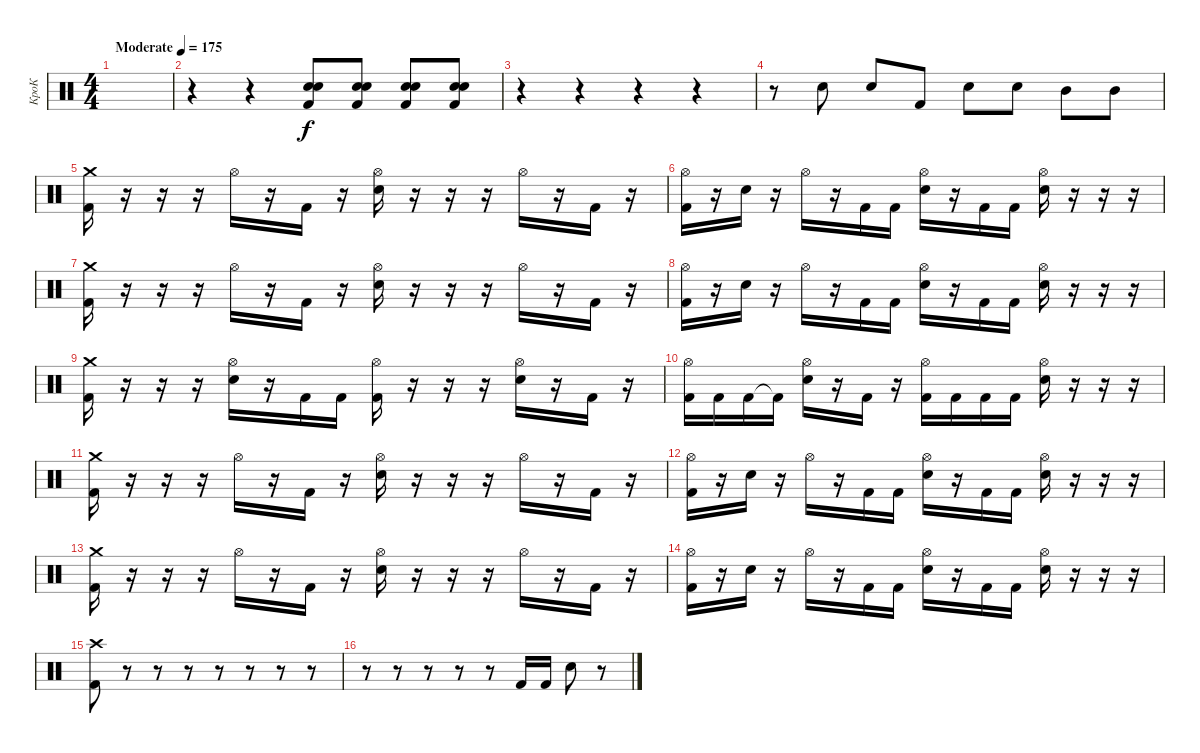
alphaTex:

\track ("КроК" "КроК") {instrument percussion}
\staff {score}
\articulation defaults
\ts (4 4)
\tempo (175 "Moderate")
\clef neutral
\ks c
|
r.4 r.4 ("Electric Snare (hit)" "Kick (hit) 2" "Electric Snare (hit)").8 ("Electric Snare (hit)" "Kick (hit) 2" "Electric Snare (hit)").8 ("Electric Snare (hit)" "Kick (hit) 2" "Electric Snare (hit)").8 ("Electric Snare (hit)" "Kick (hit) 2" "Electric Snare (hit)").8 |
r.4 r.4 r.4 r.4 |
r.8 "Electric Snare (hit)".8 "Electric Snare (hit)".8 "Kick (hit) 2".8 "Electric Snare (hit)".8 "Electric Snare (hit)".8 "Mid Tom (hit)".8 "Mid Tom (hit)".8 |
("Crash medium (hit)" "Kick (hit) 2").16 r.16 r.16 r.16 "Hi-Hat (open)".16 r.16 "Kick (hit) 2".16 r.16 ("Hi-Hat (open)" "Electric Snare (hit)").16 r.16 r.16 r.16 "Hi-Hat (open)".16 r.16 "Kick (hit) 2".16 r.16 |
("Hi-Hat (open)" "Kick (hit) 2").16 r.16 "Electric Snare (hit)".16 r.16 "Hi-Hat (open)".16 r.16 "Kick (hit) 2".16 "Kick (hit) 2".16 ("Hi-Hat (open)" "Electric Snare (hit)").16 r.16 "Kick (hit) 2".16 "Kick (hit) 2".16 ("Hi-Hat (open)" "Electric Snare (hit)").16 r.16 r.16 r.16 |
("Crash medium (hit)" "Kick (hit) 2").16 r.16 r.16 r.16 "Hi-Hat (open)".16 r.16 "Kick (hit) 2".16 r.16 ("Hi-Hat (open)" "Electric Snare (hit)").16 r.16 r.16 r.16 "Hi-Hat (open)".16 r.16 "Kick (hit) 2".16 r.16 |
("Hi-Hat (open)" "Kick (hit) 2").16 r.16 "Electric Snare (hit)".16 r.16 "Hi-Hat (open)".16 r.16 "Kick (hit) 2".16 "Kick (hit) 2".16 ("Hi-Hat (open)" "Electric Snare (hit)").16 r.16 "Kick (hit) 2".16 "Kick (hit) 2".16 ("Hi-Hat (open)" "Electric Snare (hit)").16 r.16 r.16 r.16 |
("Crash medium (hit)" "Kick (hit) 2").16 r.16 r.16 r.16 ("Hi-Hat (open)" "Electric Snare (hit)").16 r.16 "Kick (hit) 2".16 "Kick (hit) 2".16 ("Hi-Hat (open)" "Kick (hit) 2").16 r.16 r.16 r.16 ("Hi-Hat (open)" "Electric Snare (hit)").16 r.16 "Kick (hit) 2".16 r.16 |
("Hi-Hat (open)" "Kick (hit) 2").16 "Kick (hit) 2".16 "Kick (hit) 2".16 "Kick (hit) 2"{t}.16 ("Hi-Hat (open)" "Electric Snare (hit)").16 r.16 "Kick (hit) 2".16 r.16 ("Hi-Hat (open)" "Kick (hit) 2").16 "Kick (hit) 2".16 "Kick (hit) 2".16 "Kick (hit) 2".16 ("Hi-Hat (open)" "Electric Snare (hit)").16 r.16 r.16 r.16 |
("Crash medium (hit)" "Kick (hit) 2").16 r.16 r.16 r.16 "Hi-Hat (open)".16 r.16 "Kick (hit) 2".16 r.16 ("Hi-Hat (open)" "Electric Snare (hit)").16 r.16 r.16 r.16 "Hi-Hat (open)".16 r.16 "Kick (hit) 2".16 r.16 |
("Hi-Hat (open)" "Kick (hit) 2").16 r.16 "Electric Snare (hit)".16 r.16 "Hi-Hat (open)".16 r.16 "Kick (hit) 2".16 "Kick (hit) 2".16 ("Hi-Hat (open)" "Electric Snare (hit)").16 r.16 "Kick (hit) 2".16 "Kick (hit) 2".16 ("Hi-Hat (open)" "Electric Snare (hit)").16 r.16 r.16 r.16 |
("Crash medium (hit)" "Kick (hit) 2").16 r.16 r.16 r.16 "Hi-Hat (open)".16 r.16 "Kick (hit) 2".16 r.16 ("Hi-Hat (open)" "Electric Snare (hit)").16 r.16 r.16 r.16 "Hi-Hat (open)".16 r.16 "Kick (hit) 2".16 r.16 |
("Hi-Hat (open)" "Kick (hit) 2").16 r.16 "Electric Snare (hit)".16 r.16 "Hi-Hat (open)".16 r.16 "Kick (hit) 2".16 "Kick (hit) 2".16 ("Hi-Hat (open)" "Electric Snare (hit)").16 r.16 "Kick (hit) 2".16 "Kick (hit) 2".16 ("Hi-Hat (open)" "Electric Snare (hit)").16 r.16 r.16 r.16 |
("Crash high (hit)" "Kick (hit) 2").8 r.8 r.8 r.8 r.8 r.8 r.8 r.8 |
r.8 r.8 r.8 r.8 r.8 "Kick (hit) 2".16 "Kick (hit) 2".16 "Electric Snare (hit)".8 r.8
